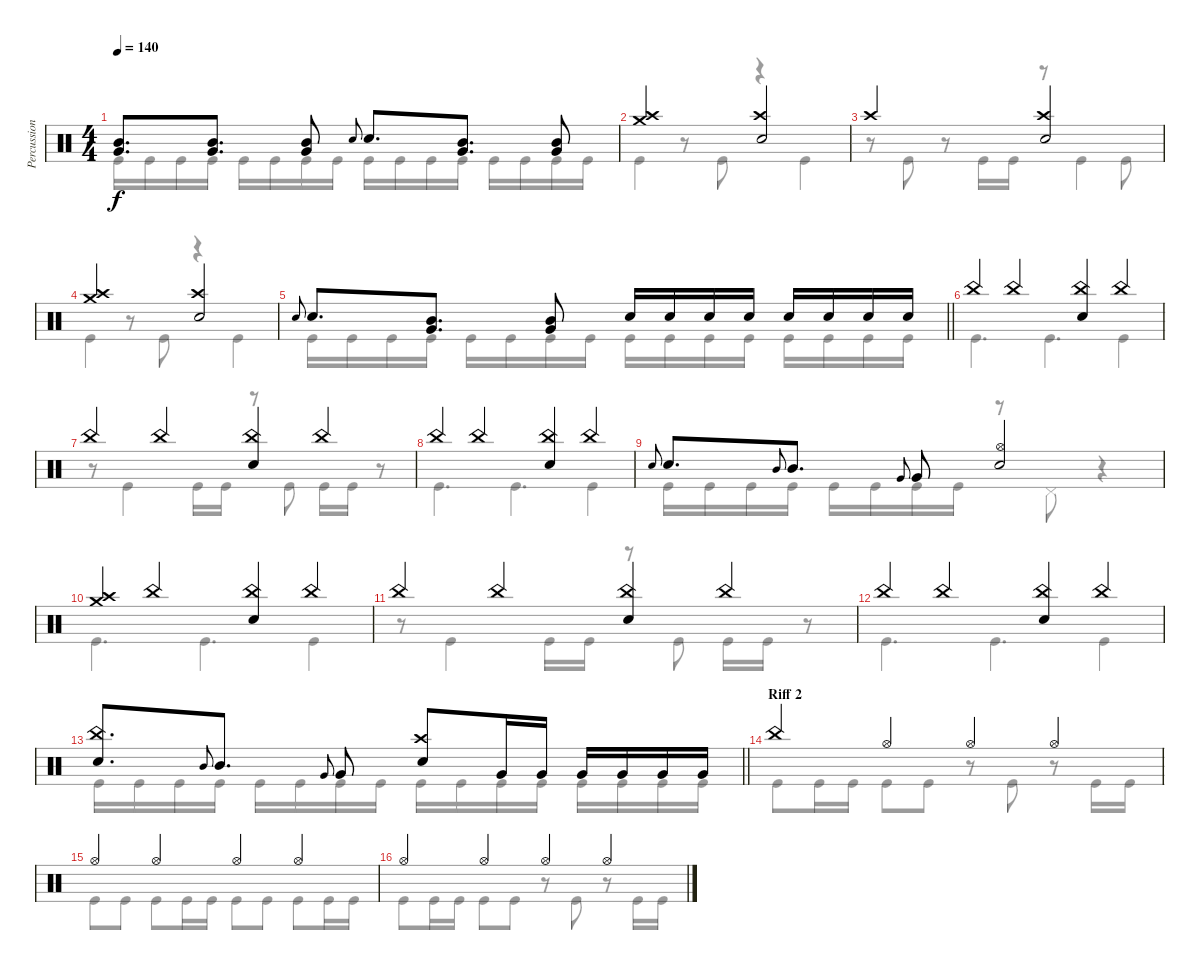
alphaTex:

\track ("Percussion" "Percussion") {instrument percussion}
\staff {score}
\articulation defaults
\voice
\ts (4 4)
\tempo 140
\clef neutral
\ks c
("Mid Tom (hit)" "Very Low Tom (hit)").8{d dy f} ("Mid Tom (hit)" "Very Low Tom (hit)").8{d} ("Mid Tom (hit)" "Very Low Tom (hit)").8 "Electric Snare (hit)".8{gr onbeat} "Electric Snare (hit)".8{d} ("Mid Tom (hit)" "Very Low Tom (hit)").8{d} ("Mid Tom (hit)" "Very Low Tom (hit)").8 |
("Crash medium (hit)" "Crash high (hit)").2 ("Crash high (hit)" "Electric Snare (hit)").2 |
"Crash high (hit)".2 ("Crash high (hit)" "Electric Snare (hit)").2 |
("Crash medium (hit)" "Crash high (hit)").2 ("Crash high (hit)" "Electric Snare (hit)").2 |
\barLineRight lightlight "Electric Snare (hit)".8{gr onbeat} "Electric Snare (hit)".8{d}
("Mid Tom (hit)" "Very Low Tom (hit)").8{d} ("Mid Tom (hit)" "Very Low Tom (hit)").8 "Electric Snare (hit)".16 "Electric Snare (hit)".16 "Electric Snare (hit)".16 "Electric Snare (hit)".16 "Electric Snare (hit)".16 "Electric Snare (hit)".16 "Electric Snare (hit)".16 "Electric Snare (hit)".16 |
\section ("" "")
"China (hit)".4 "China (hit)".4 ("China (hit)" "Electric Snare (hit)").4 "China (hit)".4 |
"China (hit)".4 "China (hit)".4 ("China (hit)" "Electric Snare (hit)").4 "China (hit)".4 |
"China (hit)".4 "China (hit)".4 ("China (hit)" "Electric Snare (hit)").4 "China (hit)".4 |
"Electric Snare (hit)".8{gr onbeat} "Electric Snare (hit)".8{d} "Mid Tom (hit)".8{gr onbeat} "Mid Tom (hit)".8{d} "Very Low Tom (hit)".8{gr onbeat} "Very Low Tom (hit)".8 ("Hi-Hat (open)" "Electric Snare (hit)").2 |
("Crash medium (hit)" "Crash high (hit)").4 "China (hit)".4 ("China (hit)" "Electric Snare (hit)").4 "China (hit)".4 |
"China (hit)".4 "China (hit)".4 ("China (hit)" "Electric Snare (hit)").4 "China (hit)".4 |
"China (hit)".4 "China (hit)".4 ("China (hit)" "Electric Snare (hit)").4 "China (hit)".4 |
\barLineRight lightlight
("China (hit)" "Electric Snare (hit)").8{d} "Mid Tom (hit)".8{gr onbeat} "Mid Tom (hit)".8{d} "Very Low Tom (hit)".8{gr onbeat} "Very Low Tom (hit)".8 ("Crash high (hit)" "Electric Snare (hit)").8 "Very Low Tom (hit)".16 "Very Low Tom (hit)".16 "Very Low Tom (hit)".16 "Very Low Tom (hit)".16 "Very Low Tom (hit)".16 "Very Low Tom (hit)".16 |
\section ("" "Riff 2")
"China (hit)".4 "Hi-Hat (open)".4 "Hi-Hat (open)".4 "Hi-Hat (open)".4 |
"Hi-Hat (open)".4 "Hi-Hat (open)".4 "Hi-Hat (open)".4 "Hi-Hat (open)".4 |
"Hi-Hat (open)".4 "Hi-Hat (open)".4 "Hi-Hat (open)".4 "Hi-Hat (open)".4
\voice
\clef neutral
\ottava regular
\simile none
\ks c "Kick (hit)".16{dy f} "Kick (hit)".16 "Kick (hit)".16 "Kick (hit)".16 "Kick (hit)".16 "Kick (hit)".16 "Kick (hit)".16 "Kick (hit)".16 "Kick (hit)".16 "Kick (hit)".16 "Kick (hit)".16 "Kick (hit)".16 "Kick (hit)".16 "Kick (hit)".16 "Kick (hit)".16 "Kick (hit)".16
|
"Kick (hit)".4 r.8 "Kick (hit)".8 r.4 "Kick (hit)".4 |
r.8 "Kick (hit)".8 r.8 "Kick (hit)".16 "Kick (hit)".16 r.8 "Kick (hit)".4 "Kick (hit)".8 |
"Kick (hit)".4 r.8 "Kick (hit)".8 r.4 "Kick (hit)".4 |
\barLineRight lightlight "Kick (hit)".16 "Kick (hit)".16 "Kick (hit)".16 "Kick (hit)".16 "Kick (hit)".16 "Kick (hit)".16 "Kick (hit)".16 "Kick (hit)".16 "Kick (hit)".16 "Kick (hit)".16 "Kick (hit)".16 "Kick (hit)".16 "Kick (hit)".16 "Kick (hit)".16 "Kick (hit)".16 "Kick (hit)".16
|
"Kick (hit)".4{d} "Kick (hit)".4{d} "Kick (hit)".4 |
r.8 "Kick (hit)".4 "Kick (hit)".16 "Kick (hit)".16 r.8 "Kick (hit)".8 "Kick (hit)".16 "Kick (hit)".16 r.8 |
"Kick (hit)".4{d} "Kick (hit)".4{d} "Kick (hit)".4 |
"Kick (hit)".16 "Kick (hit)".16 "Kick (hit)".16 "Kick (hit)".16 "Kick (hit)".16 "Kick (hit)".16 "Kick (hit)".16 "Kick (hit)".16 r.8 "Pedal Hi-Hat (hit)".8 r.4 |
"Kick (hit)".4{d} "Kick (hit)".4{d} "Kick (hit)".4 |
r.8 "Kick (hit)".4 "Kick (hit)".16 "Kick (hit)".16 r.8 "Kick (hit)".8 "Kick (hit)".16 "Kick (hit)".16 r.8 |
"Kick (hit)".4{d} "Kick (hit)".4{d} "Kick (hit)".4 |
\barLineRight lightlight "Kick (hit)".16 "Kick (hit)".16 "Kick (hit)".16 "Kick (hit)".16 "Kick (hit)".16 "Kick (hit)".16 "Kick (hit)".16 "Kick (hit)".16 "Kick (hit)".16 "Kick (hit)".16 "Kick (hit)".16 "Kick (hit)".16 "Kick (hit)".16 "Kick (hit)".16 "Kick (hit)".16 "Kick (hit)".16
|
"Kick (hit)".8 "Kick (hit)".16 "Kick (hit)".16 "Kick (hit)".8 "Kick (hit)".8 r.8 "Kick (hit)".8 r.8 "Kick (hit)".16 "Kick (hit)".16 |
"Kick (hit)".8 "Kick (hit)".8 "Kick (hit)".8 "Kick (hit)".16 "Kick (hit)".16 "Kick (hit)".8 "Kick (hit)".8 "Kick (hit)".8 "Kick (hit)".16 "Kick (hit)".16 |
"Kick (hit)".8 "Kick (hit)".16 "Kick (hit)".16 "Kick (hit)".8 "Kick (hit)".8 r.8 "Kick (hit)".8 r.8 "Kick (hit)".16 "Kick (hit)".16
